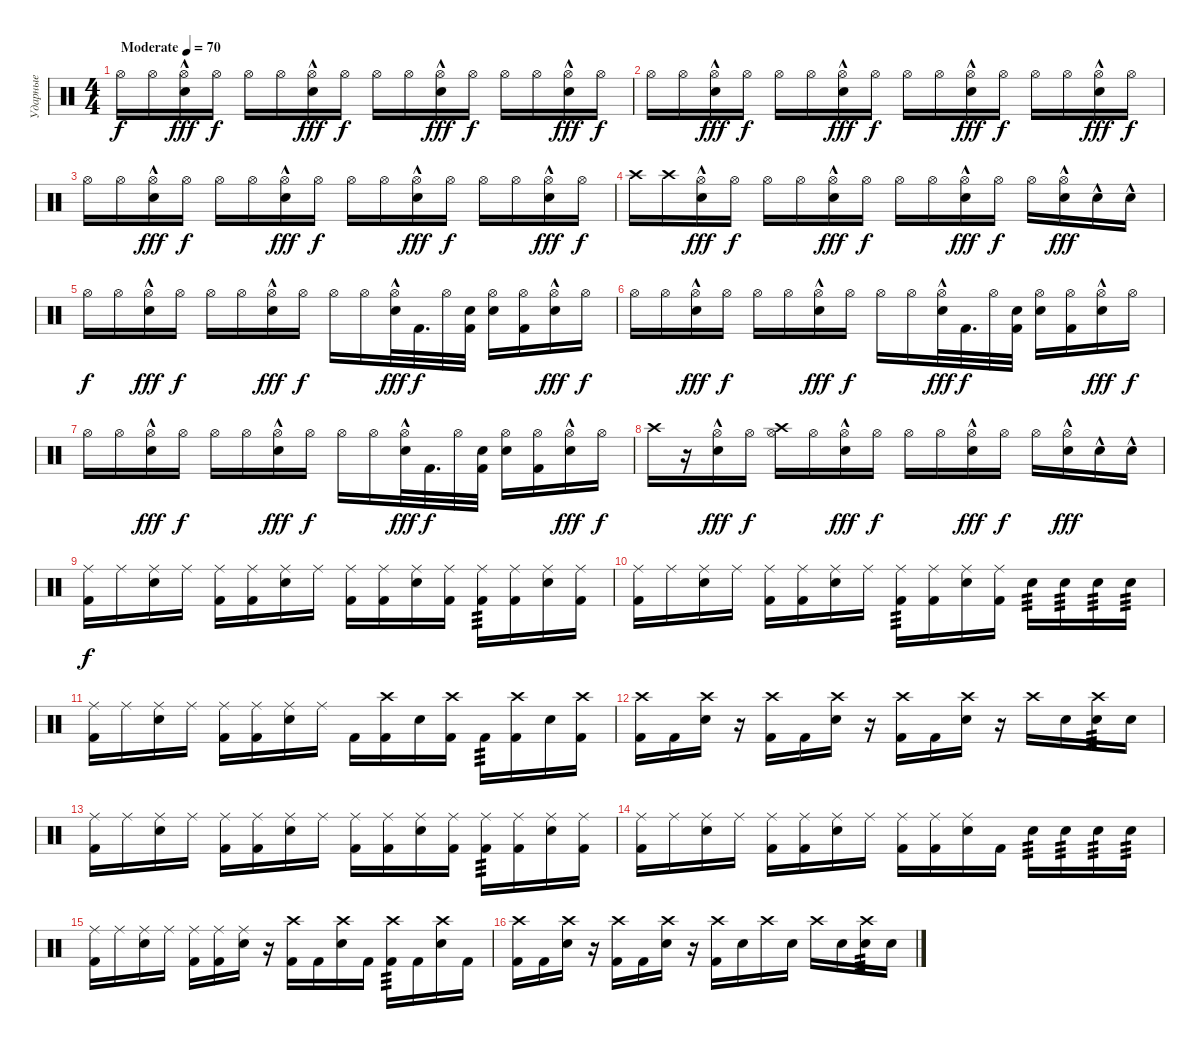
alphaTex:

\track ("Ударные" "Ударные") {instrument percussion}
\staff {score}
\articulation defaults
\ts (4 4)
\tempo (70 "Moderate")
\clef neutral
\ks c "Hi-Hat (open)".16{dy f} "Hi-Hat (open)".16
("Hi-Hat (open)" "Electric Snare (hit)"{hac}).16{dy fff} "Hi-Hat (open)".16{dy f} "Hi-Hat (open)".16 "Hi-Hat (open)".16 ("Hi-Hat (open)" "Electric Snare (hit)"{hac}).16{dy fff} "Hi-Hat (open)".16{dy f} "Hi-Hat (open)".16 "Hi-Hat (open)".16 ("Hi-Hat (open)" "Electric Snare (hit)"{hac}).16{dy fff} "Hi-Hat (open)".16{dy f} "Hi-Hat (open)".16 "Hi-Hat (open)".16 ("Hi-Hat (open)" "Electric Snare (hit)"{hac}).16{dy fff} "Hi-Hat (open)".16{dy f} |
"Hi-Hat (open)".16 "Hi-Hat (open)".16 ("Hi-Hat (open)" "Electric Snare (hit)"{hac}).16{dy fff} "Hi-Hat (open)".16{dy f} "Hi-Hat (open)".16 "Hi-Hat (open)".16 ("Hi-Hat (open)" "Electric Snare (hit)"{hac}).16{dy fff} "Hi-Hat (open)".16{dy f} "Hi-Hat (open)".16 "Hi-Hat (open)".16 ("Hi-Hat (open)" "Electric Snare (hit)"{hac}).16{dy fff} "Hi-Hat (open)".16{dy f} "Hi-Hat (open)".16 "Hi-Hat (open)".16 ("Hi-Hat (open)" "Electric Snare (hit)"{hac}).16{dy fff} "Hi-Hat (open)".16{dy f} |
"Hi-Hat (open)".16 "Hi-Hat (open)".16 ("Hi-Hat (open)" "Electric Snare (hit)"{hac}).16{dy fff} "Hi-Hat (open)".16{dy f} "Hi-Hat (open)".16 "Hi-Hat (open)".16 ("Hi-Hat (open)" "Electric Snare (hit)"{hac}).16{dy fff} "Hi-Hat (open)".16{dy f} "Hi-Hat (open)".16 "Hi-Hat (open)".16 ("Hi-Hat (open)" "Electric Snare (hit)"{hac}).16{dy fff} "Hi-Hat (open)".16{dy f} "Hi-Hat (open)".16 "Hi-Hat (open)".16 ("Hi-Hat (open)" "Electric Snare (hit)"{hac}).16{dy fff} "Hi-Hat (open)".16{dy f} |
"Crash high (hit)".16 "Crash high (hit)".16 ("Hi-Hat (open)" "Electric Snare (hit)"{hac}).16{dy fff} "Hi-Hat (open)".16{dy f} "Hi-Hat (open)".16 "Hi-Hat (open)".16 ("Hi-Hat (open)" "Electric Snare (hit)"{hac}).16{dy fff} "Hi-Hat (open)".16{dy f} "Hi-Hat (open)".16 "Hi-Hat (open)".16 ("Hi-Hat (open)" "Electric Snare (hit)"{hac}).16{dy fff} "Hi-Hat (open)".16{dy f} "Hi-Hat (open)".16 ("Hi-Hat (open)" "Electric Snare (hit)"{hac}).16{dy fff} "Electric Snare (hit)"{hac}.16 "Electric Snare (hit)"{hac}.16 |
"Hi-Hat (open)".16{dy f} "Hi-Hat (open)".16 ("Hi-Hat (open)" "Electric Snare (hit)"{hac}).16{dy fff} "Hi-Hat (open)".16{dy f} "Hi-Hat (open)".16 "Hi-Hat (open)".16 ("Hi-Hat (open)" "Electric Snare (hit)"{hac}).16{dy fff} "Hi-Hat (open)".16{dy f} "Hi-Hat (open)".16 "Hi-Hat (open)".16 ("Hi-Hat (open)" "Electric Snare (hit)"{hac}).32{dy fff} "Kick (hit) 2".32{d dy f} "Hi-Hat (open)".32 ("Kick (hit) 2" "Electric Snare (hit)").32 ("Hi-Hat (open)" "Electric Snare (hit)").16 ("Hi-Hat (open)" "Kick (hit) 2").16 ("Hi-Hat (open)" "Electric Snare (hit)"{hac}).16{dy fff} "Hi-Hat (open)".16{dy f} |
"Hi-Hat (open)".16 "Hi-Hat (open)".16 ("Hi-Hat (open)" "Electric Snare (hit)"{hac}).16{dy fff} "Hi-Hat (open)".16{dy f} "Hi-Hat (open)".16 "Hi-Hat (open)".16 ("Hi-Hat (open)" "Electric Snare (hit)"{hac}).16{dy fff} "Hi-Hat (open)".16{dy f} "Hi-Hat (open)".16 "Hi-Hat (open)".16 ("Hi-Hat (open)" "Electric Snare (hit)"{hac}).32{dy fff} "Kick (hit) 2".32{d dy f} "Hi-Hat (open)".32 ("Kick (hit) 2" "Electric Snare (hit)").32 ("Hi-Hat (open)" "Electric Snare (hit)").16 ("Hi-Hat (open)" "Kick (hit) 2").16 ("Hi-Hat (open)" "Electric Snare (hit)"{hac}).16{dy fff} "Hi-Hat (open)".16{dy f} |
"Hi-Hat (open)".16 "Hi-Hat (open)".16 ("Hi-Hat (open)" "Electric Snare (hit)"{hac}).16{dy fff} "Hi-Hat (open)".16{dy f} "Hi-Hat (open)".16 "Hi-Hat (open)".16 ("Hi-Hat (open)" "Electric Snare (hit)"{hac}).16{dy fff} "Hi-Hat (open)".16{dy f} "Hi-Hat (open)".16 "Hi-Hat (open)".16 ("Hi-Hat (open)" "Electric Snare (hit)"{hac}).32{dy fff} "Kick (hit) 2".32{d dy f} "Hi-Hat (open)".32 ("Kick (hit) 2" "Electric Snare (hit)").32 ("Hi-Hat (open)" "Electric Snare (hit)").16 ("Hi-Hat (open)" "Kick (hit) 2").16 ("Hi-Hat (open)" "Electric Snare (hit)"{hac}).16{dy fff} "Hi-Hat (open)".16{dy f} |
"Crash high (hit)".16 r.16 ("Hi-Hat (open)" "Electric Snare (hit)"{hac}).16{dy fff} "Hi-Hat (open)".16{dy f} ("Crash high (hit)" "Hi-Hat (open)").16 "Hi-Hat (open)".16 ("Hi-Hat (open)" "Electric Snare (hit)"{hac}).16{dy fff} "Hi-Hat (open)".16{dy f} "Hi-Hat (open)".16 "Hi-Hat (open)".16 ("Hi-Hat (open)" "Electric Snare (hit)"{hac}).16{dy fff} "Hi-Hat (open)".16{dy f} "Hi-Hat (open)".16 ("Hi-Hat (open)" "Electric Snare (hit)"{hac}).16{dy fff} "Electric Snare (hit)"{hac}.16 "Electric Snare (hit)"{hac}.16 |
("Ride (middle)" "Kick (hit) 2").16{dy f} "Ride (middle)".16 ("Ride (middle)" "Electric Snare (hit)").16 "Ride (middle)".16 ("Ride (middle)" "Kick (hit) 2").16 ("Ride (middle)" "Kick (hit) 2").16 ("Ride (middle)" "Electric Snare (hit)").16 "Ride (middle)".16 ("Ride (middle)" "Kick (hit) 2").16 ("Ride (middle)" "Kick (hit) 2").16 ("Ride (middle)" "Electric Snare (hit)").16 ("Ride (middle)" "Kick (hit) 2").16 ("Ride (middle)" "Kick (hit) 2").16{tp 3} ("Ride (middle)" "Kick (hit) 2").16 ("Ride (middle)" "Electric Snare (hit)").16 ("Ride (middle)" "Kick (hit) 2").16 |
("Ride (middle)" "Kick (hit) 2").16 "Ride (middle)".16 ("Ride (middle)" "Electric Snare (hit)").16 "Ride (middle)".16 ("Ride (middle)" "Kick (hit) 2").16 ("Ride (middle)" "Kick (hit) 2").16 ("Ride (middle)" "Electric Snare (hit)").16 "Ride (middle)".16 ("Ride (middle)" "Kick (hit) 2").16{tp 3} ("Ride (middle)" "Kick (hit) 2").16 ("Ride (middle)" "Electric Snare (hit)").16 ("Ride (middle)" "Kick (hit) 2").16 "Electric Snare (hit)".16{tp 3} "Electric Snare (hit)".16{tp 3} "Electric Snare (hit)".16{tp 3} "Electric Snare (hit)".16{tp 3} |
("Ride (middle)" "Kick (hit) 2").16 "Ride (middle)".16 ("Ride (middle)" "Electric Snare (hit)").16 "Ride (middle)".16 ("Ride (middle)" "Kick (hit) 2").16 ("Ride (middle)" "Kick (hit) 2").16 ("Ride (middle)" "Electric Snare (hit)").16 "Ride (middle)".16 "Kick (hit) 2".16 ("Crash high (hit)" "Kick (hit) 2").16 "Electric Snare (hit)".16 ("Crash high (hit)" "Kick (hit) 2").16 "Kick (hit) 2".16{tp 3} ("Crash high (hit)" "Kick (hit) 2").16 "Electric Snare (hit)".16 ("Crash high (hit)" "Kick (hit) 2").16 |
("Crash high (hit)" "Kick (hit) 2").16 "Kick (hit) 2".16 ("Crash high (hit)" "Electric Snare (hit)").16 r.16 ("Crash high (hit)" "Kick (hit) 2").16 "Kick (hit) 2".16 ("Crash high (hit)" "Electric Snare (hit)").16 r.16 ("Crash high (hit)" "Kick (hit) 2").16 "Kick (hit) 2".16 ("Crash high (hit)" "Electric Snare (hit)").16 r.16 "Crash high (hit)".16 "Electric Snare (hit)".16 ("Crash high (hit)" "Electric Snare (hit)").16{tp 3} "Electric Snare (hit)".16 |
("Ride (middle)" "Kick (hit) 2").16 "Ride (middle)".16 ("Ride (middle)" "Electric Snare (hit)").16 "Ride (middle)".16 ("Ride (middle)" "Kick (hit) 2").16 ("Ride (middle)" "Kick (hit) 2").16 ("Ride (middle)" "Electric Snare (hit)").16 "Ride (middle)".16 ("Ride (middle)" "Kick (hit) 2").16 ("Ride (middle)" "Kick (hit) 2").16 ("Ride (middle)" "Electric Snare (hit)").16 ("Ride (middle)" "Kick (hit) 2").16 ("Ride (middle)" "Kick (hit) 2").16{tp 3} ("Ride (middle)" "Kick (hit) 2").16 ("Ride (middle)" "Electric Snare (hit)").16 ("Ride (middle)" "Kick (hit) 2").16 |
("Ride (middle)" "Kick (hit) 2").16 "Ride (middle)".16 ("Ride (middle)" "Electric Snare (hit)").16 "Ride (middle)".16 ("Ride (middle)" "Kick (hit) 2").16 ("Ride (middle)" "Kick (hit) 2").16 ("Ride (middle)" "Electric Snare (hit)").16 "Ride (middle)".16 ("Ride (middle)" "Kick (hit) 2").16 ("Ride (middle)" "Kick (hit) 2").16 ("Ride (middle)" "Electric Snare (hit)").16 "Kick (hit) 2".16 "Electric Snare (hit)".16{tp 3} "Electric Snare (hit)".16{tp 3} "Electric Snare (hit)".16{tp 3} "Electric Snare (hit)".16{tp 3} |
("Ride (middle)" "Kick (hit) 2").16 "Ride (middle)".16 ("Ride (middle)" "Electric Snare (hit)").16 "Ride (middle)".16 ("Ride (middle)" "Kick (hit) 2").16 ("Ride (middle)" "Kick (hit) 2").16 ("Ride (middle)" "Electric Snare (hit)").16 r.16 ("Crash high (hit)" "Kick (hit) 2").16 "Kick (hit) 2".16 ("Crash high (hit)" "Electric Snare (hit)").16 "Kick (hit) 2".16 ("Crash high (hit)" "Kick (hit) 2").16{tp 3} "Kick (hit) 2".16 ("Crash high (hit)" "Electric Snare (hit)").16 "Kick (hit) 2".16 |
("Crash high (hit)" "Kick (hit) 2").16 "Kick (hit) 2".16 ("Crash high (hit)" "Electric Snare (hit)").16 r.16 ("Crash high (hit)" "Kick (hit) 2").16 "Kick (hit) 2".16 ("Crash high (hit)" "Electric Snare (hit)").16 r.16 ("Crash high (hit)" "Kick (hit) 2").16 "Electric Snare (hit)".16 "Crash high (hit)".16 "Electric Snare (hit)".16 "Crash high (hit)".16 "Electric Snare (hit)".16 ("Crash high (hit)" "Electric Snare (hit)").16{tp 3} "Electric Snare (hit)".16
